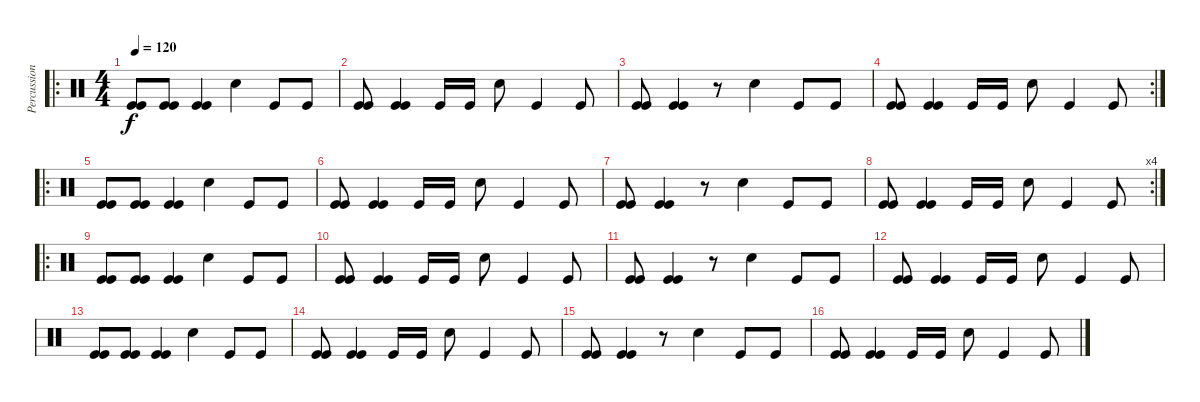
\track ("Percussion" "Percussion") {instrument percussion}
\staff {score}
\articulation defaults
\ro
\ts (4 4)
\tempo 120
\clef neutral
\ks c
("Kick (hit)" "Kick (hit)").8{dy f} ("Kick (hit)" "Kick (hit)").8 ("Kick (hit)" "Kick (hit)").4 "Electric Snare (hit)".4 "Kick (hit)".8 "Kick (hit)".8 |
("Kick (hit)" "Kick (hit)").8 ("Kick (hit)" "Kick (hit)").4 "Kick (hit)".16 "Kick (hit)".16 "Electric Snare (hit)".8 "Kick (hit)".4 "Kick (hit)".8 |
("Kick (hit)" "Kick (hit)").8 ("Kick (hit)" "Kick (hit)").4 r.8 "Electric Snare (hit)".4 "Kick (hit)".8 "Kick (hit)".8 |
\rc 2
("Kick (hit)" "Kick (hit)").8 ("Kick (hit)" "Kick (hit)").4 "Kick (hit)".16 "Kick (hit)".16 "Electric Snare (hit)".8 "Kick (hit)".4 "Kick (hit)".8 |
\ro
("Kick (hit)" "Kick (hit)").8 ("Kick (hit)" "Kick (hit)").8 ("Kick (hit)" "Kick (hit)").4 "Electric Snare (hit)".4 "Kick (hit)".8 "Kick (hit)".8 |
("Kick (hit)" "Kick (hit)").8 ("Kick (hit)" "Kick (hit)").4 "Kick (hit)".16 "Kick (hit)".16 "Electric Snare (hit)".8 "Kick (hit)".4 "Kick (hit)".8 |
("Kick (hit)" "Kick (hit)").8 ("Kick (hit)" "Kick (hit)").4 r.8 "Electric Snare (hit)".4 "Kick (hit)".8 "Kick (hit)".8 |
\rc 4
("Kick (hit)" "Kick (hit)").8 ("Kick (hit)" "Kick (hit)").4 "Kick (hit)".16 "Kick (hit)".16 "Electric Snare (hit)".8 "Kick (hit)".4 "Kick (hit)".8 |
\ro
("Kick (hit)" "Kick (hit)").8 ("Kick (hit)" "Kick (hit)").8 ("Kick (hit)" "Kick (hit)").4 "Electric Snare (hit)".4 "Kick (hit)".8 "Kick (hit)".8 |
("Kick (hit)" "Kick (hit)").8 ("Kick (hit)" "Kick (hit)").4 "Kick (hit)".16 "Kick (hit)".16 "Electric Snare (hit)".8 "Kick (hit)".4 "Kick (hit)".8 |
("Kick (hit)" "Kick (hit)").8 ("Kick (hit)" "Kick (hit)").4 r.8 "Electric Snare (hit)".4 "Kick (hit)".8 "Kick (hit)".8 |
("Kick (hit)" "Kick (hit)").8 ("Kick (hit)" "Kick (hit)").4 "Kick (hit)".16 "Kick (hit)".16 "Electric Snare (hit)".8 "Kick (hit)".4 "Kick (hit)".8 |
("Kick (hit)" "Kick (hit)").8 ("Kick (hit)" "Kick (hit)").8 ("Kick (hit)" "Kick (hit)").4 "Electric Snare (hit)".4 "Kick (hit)".8 "Kick (hit)".8 |
("Kick (hit)" "Kick (hit)").8 ("Kick (hit)" "Kick (hit)").4 "Kick (hit)".16 "Kick (hit)".16 "Electric Snare (hit)".8 "Kick (hit)".4 "Kick (hit)".8 |
("Kick (hit)" "Kick (hit)").8 ("Kick (hit)" "Kick (hit)").4 r.8 "Electric Snare (hit)".4 "Kick (hit)".8 "Kick (hit)".8 |
("Kick (hit)" "Kick (hit)").8 ("Kick (hit)" "Kick (hit)").4 "Kick (hit)".16 "Kick (hit)".16 "Electric Snare (hit)".8 "Kick (hit)".4 "Kick (hit)".8
